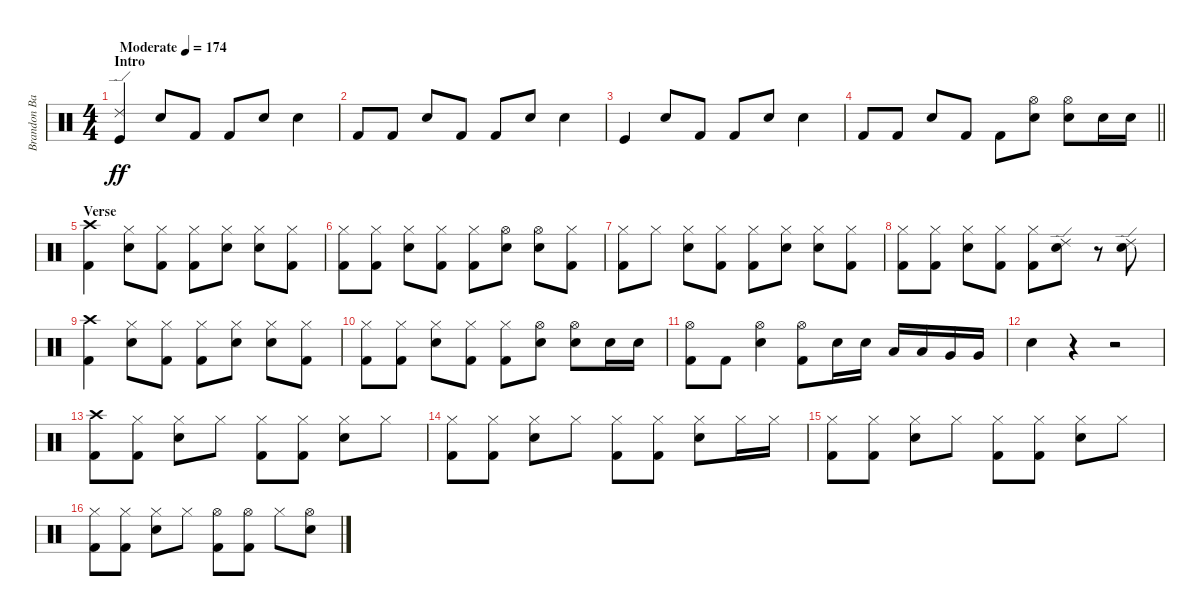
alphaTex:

\track ("Brandon Barnes - Drums" "Brandon Ba") {instrument percussion}
\staff {score}
\articulation defaults
\ts (4 4)
\section ("" "Intro")
\tempo (174 "Moderate")
\clef neutral
\ks c
("Kick (hit)" "Ride (edge) 2").4{dy ff} "Snare (hit) 2".8 "Kick (hit) 2".8 "Kick (hit) 2".8 "Snare (hit) 2".8 "Snare (hit) 2".4 |
"Kick (hit) 2".8 "Kick (hit) 2".8 "Snare (hit) 2".8 "Kick (hit) 2".8 "Kick (hit) 2".8 "Snare (hit) 2".8 "Snare (hit) 2".4 |
"Kick (hit)".4 "Snare (hit) 2".8 "Kick (hit) 2".8 "Kick (hit) 2".8 "Snare (hit) 2".8 "Snare (hit) 2".4 |
\barLineRight lightlight "Kick (hit) 2".8 "Kick (hit) 2".8 "Snare (hit) 2".8 "Kick (hit) 2".8 "Kick (hit) 2".8
("Snare (hit) 2" "Hi-Hat (open)").8 ("Snare (hit) 2" "Hi-Hat (open)").8 "Snare (hit) 2".16 "Snare (hit) 2".16 |
\section ("" "Verse")
("Crash high (hit)" "Kick (hit) 2").4 ("Snare (hit) 2" "Hi-Hat (closed)").8 ("Kick (hit) 2" "Hi-Hat (closed)").8 ("Kick (hit) 2" "Hi-Hat (closed)").8 ("Snare (hit) 2" "Hi-Hat (closed)").8 ("Snare (hit) 2" "Hi-Hat (closed)").8 ("Kick (hit) 2" "Hi-Hat (closed)").8 |
("Kick (hit) 2" "Hi-Hat (closed)").8 ("Kick (hit) 2" "Hi-Hat (closed)").8 ("Snare (hit) 2" "Hi-Hat (closed)").8 ("Kick (hit) 2" "Hi-Hat (closed)").8 ("Kick (hit) 2" "Hi-Hat (closed)").8 ("Snare (hit) 2" "Hi-Hat (open)").8 ("Snare (hit) 2" "Hi-Hat (open)").8 ("Kick (hit) 2" "Hi-Hat (closed)").8 |
("Kick (hit) 2" "Hi-Hat (closed)").8 "Hi-Hat (closed)".8 ("Snare (hit) 2" "Hi-Hat (closed)").8 ("Kick (hit) 2" "Hi-Hat (closed)").8 ("Kick (hit) 2" "Hi-Hat (closed)").8 ("Snare (hit) 2" "Hi-Hat (closed)").8 ("Snare (hit) 2" "Hi-Hat (closed)").8 ("Kick (hit) 2" "Hi-Hat (closed)").8 |
("Kick (hit) 2" "Hi-Hat (closed)").8 ("Kick (hit) 2" "Hi-Hat (closed)").8 ("Snare (hit) 2" "Hi-Hat (closed)").8 ("Kick (hit) 2" "Hi-Hat (closed)").8 ("Kick (hit) 2" "Hi-Hat (closed)").8 ("Snare (hit) 2" "Ride (edge) 2").8 r.8 ("Snare (hit) 2" "Ride (edge) 2").8 |
("Crash high (hit)" "Kick (hit) 2").4 ("Snare (hit) 2" "Hi-Hat (closed)").8 ("Kick (hit) 2" "Hi-Hat (closed)").8 ("Kick (hit) 2" "Hi-Hat (closed)").8 ("Snare (hit) 2" "Hi-Hat (closed)").8 ("Snare (hit) 2" "Hi-Hat (closed)").8 ("Kick (hit) 2" "Hi-Hat (closed)").8 |
("Kick (hit) 2" "Hi-Hat (closed)").8 ("Kick (hit) 2" "Hi-Hat (closed)").8 ("Snare (hit) 2" "Hi-Hat (closed)").8 ("Kick (hit) 2" "Hi-Hat (closed)").8 ("Kick (hit) 2" "Hi-Hat (closed)").8 ("Snare (hit) 2" "Hi-Hat (open)").8 ("Snare (hit) 2" "Hi-Hat (open)").8 "Snare (hit) 2".16 "Snare (hit) 2".16 |
("Kick (hit) 2" "Hi-Hat (open)").8 "Kick (hit) 2".8 ("Snare (hit) 2" "Hi-Hat (open)").4 ("Kick (hit) 2" "Hi-Hat (open)").8 "Snare (hit) 2".16 "Snare (hit) 2".16 "Low Tom (hit)".16 "Low Tom (hit)".16 "Very Low Tom (hit)".16 "Very Low Tom (hit)".16 |
"Snare (hit) 2".4 r.4 r.2 |
("Crash high (hit)" "Kick (hit) 2").8 ("Kick (hit) 2" "Hi-Hat (closed)").8 ("Snare (hit) 2" "Hi-Hat (closed)").8 "Hi-Hat (closed)".8 ("Hi-Hat (closed)" "Kick (hit) 2").8 ("Hi-Hat (closed)" "Kick (hit) 2").8 ("Hi-Hat (closed)" "Snare (hit) 2").8 "Hi-Hat (closed)".8 |
("Hi-Hat (closed)" "Kick (hit) 2").8 ("Hi-Hat (closed)" "Kick (hit) 2").8 ("Hi-Hat (closed)" "Snare (hit) 2").8 "Hi-Hat (closed)".8 ("Hi-Hat (closed)" "Kick (hit) 2").8 ("Hi-Hat (closed)" "Kick (hit) 2").8 ("Hi-Hat (closed)" "Snare (hit) 2").8 "Hi-Hat (closed)".16 "Hi-Hat (closed)".16 |
("Hi-Hat (closed)" "Kick (hit) 2").8 ("Hi-Hat (closed)" "Kick (hit) 2").8 ("Hi-Hat (closed)" "Snare (hit) 2").8 "Hi-Hat (closed)".8 ("Hi-Hat (closed)" "Kick (hit) 2").8 ("Hi-Hat (closed)" "Kick (hit) 2").8 ("Hi-Hat (closed)" "Snare (hit) 2").8 "Hi-Hat (closed)".8 |
("Hi-Hat (closed)" "Kick (hit) 2").8 ("Hi-Hat (closed)" "Kick (hit) 2").8 ("Hi-Hat (closed)" "Snare (hit) 2").8 "Hi-Hat (closed)".8 ("Hi-Hat (open)" "Kick (hit) 2").8 ("Hi-Hat (open)" "Kick (hit) 2").8 "Hi-Hat (closed)".8 ("Hi-Hat (open)" "Snare (hit) 2").8
